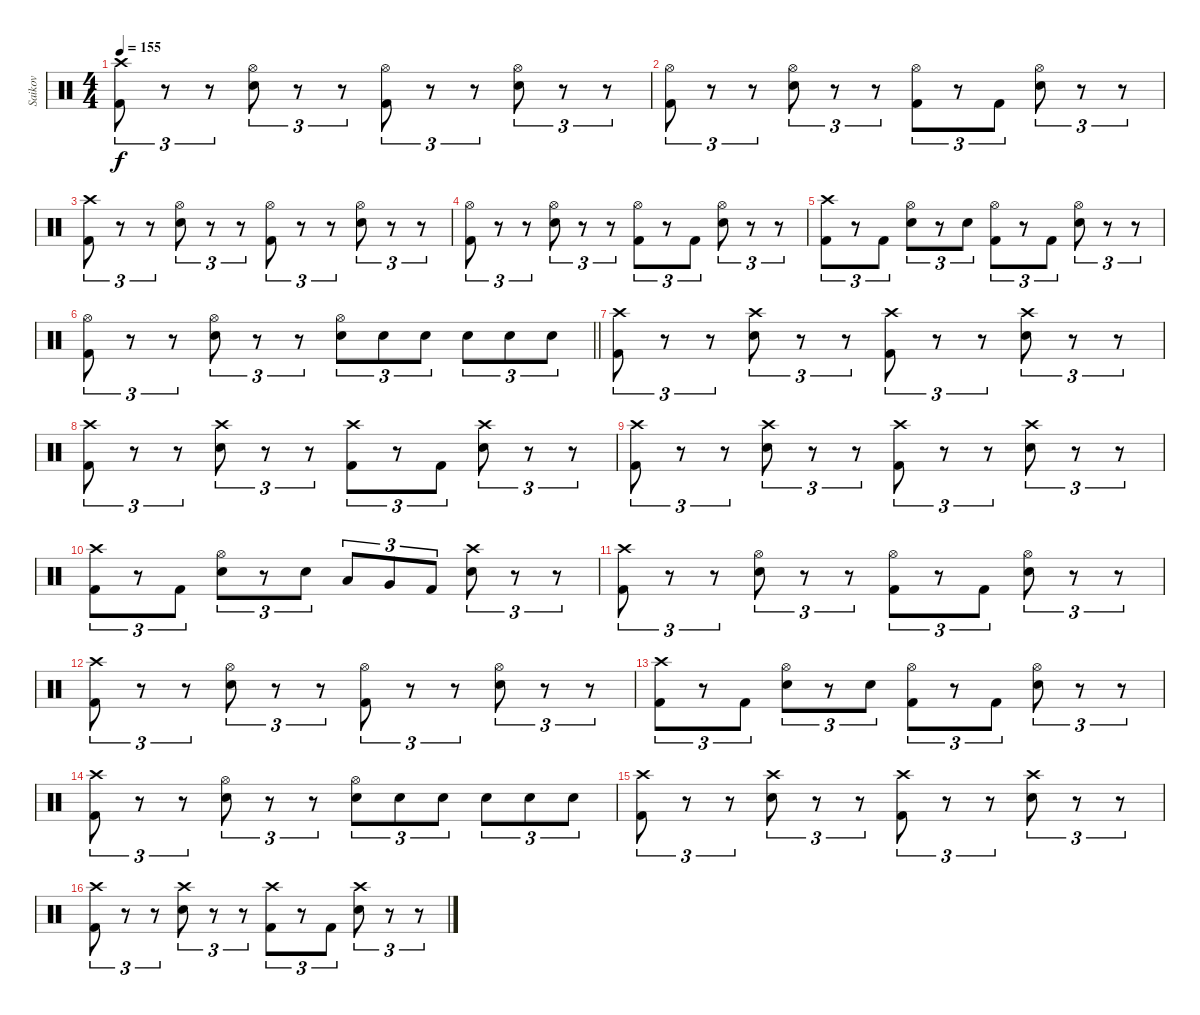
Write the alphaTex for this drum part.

\track ("Saikov" "Saikov") {instrument percussion}
\staff {score}
\articulation defaults
\ts (4 4)
\tempo 155
\clef neutral
\ks c
("Crash high (hit)" "Kick (hit) 2").8{tu (3 2) dy f} r.8{tu (3 2)} r.8{tu (3 2)} ("Hi-Hat (open)" "Snare (hit) 2").8{tu (3 2)} r.8{tu (3 2)} r.8{tu (3 2)} ("Hi-Hat (open)" "Kick (hit) 2").8{tu (3 2)} r.8{tu (3 2)} r.8{tu (3 2)} ("Hi-Hat (open)" "Snare (hit) 2").8{tu (3 2)} r.8{tu (3 2)} r.8{tu (3 2)} |
("Hi-Hat (open)" "Kick (hit) 2").8{tu (3 2)} r.8{tu (3 2)} r.8{tu (3 2)} ("Hi-Hat (open)" "Snare (hit) 2").8{tu (3 2)} r.8{tu (3 2)} r.8{tu (3 2)} ("Hi-Hat (open)" "Kick (hit) 2").8{tu (3 2)} r.8{tu (3 2)} "Kick (hit) 2".8{tu (3 2)} ("Hi-Hat (open)" "Snare (hit) 2").8{tu (3 2)} r.8{tu (3 2)} r.8{tu (3 2)} |
("Crash high (hit)" "Kick (hit) 2").8{tu (3 2)} r.8{tu (3 2)} r.8{tu (3 2)} ("Hi-Hat (open)" "Snare (hit) 2").8{tu (3 2)} r.8{tu (3 2)} r.8{tu (3 2)} ("Hi-Hat (open)" "Kick (hit) 2").8{tu (3 2)} r.8{tu (3 2)} r.8{tu (3 2)} ("Hi-Hat (open)" "Snare (hit) 2").8{tu (3 2)} r.8{tu (3 2)} r.8{tu (3 2)} |
("Hi-Hat (open)" "Kick (hit) 2").8{tu (3 2)} r.8{tu (3 2)} r.8{tu (3 2)} ("Hi-Hat (open)" "Snare (hit) 2").8{tu (3 2)} r.8{tu (3 2)} r.8{tu (3 2)} ("Hi-Hat (open)" "Kick (hit) 2").8{tu (3 2)} r.8{tu (3 2)} "Kick (hit) 2".8{tu (3 2)} ("Hi-Hat (open)" "Snare (hit) 2").8{tu (3 2)} r.8{tu (3 2)} r.8{tu (3 2)} |
("Crash high (hit)" "Kick (hit) 2").8{tu (3 2)} r.8{tu (3 2)} "Kick (hit) 2".8{tu (3 2)} ("Hi-Hat (open)" "Snare (hit) 2").8{tu (3 2)} r.8{tu (3 2)} "Snare (hit) 2".8{tu (3 2)} ("Hi-Hat (open)" "Kick (hit) 2").8{tu (3 2)} r.8{tu (3 2)} "Kick (hit) 2".8{tu (3 2)} ("Hi-Hat (open)" "Snare (hit) 2").8{tu (3 2)} r.8{tu (3 2)} r.8{tu (3 2)} |
\barLineRight lightlight
("Hi-Hat (open)" "Kick (hit) 2").8{tu (3 2)} r.8{tu (3 2)} r.8{tu (3 2)} ("Hi-Hat (open)" "Snare (hit) 2").8{tu (3 2)} r.8{tu (3 2)} r.8{tu (3 2)} ("Hi-Hat (open)" "Snare (hit) 2").8{tu (3 2)} "Snare (hit) 2".8{tu (3 2)} "Snare (hit) 2".8{tu (3 2)} "Snare (hit) 2".8{tu (3 2)} "Snare (hit) 2".8{tu (3 2)} "Snare (hit) 2".8{tu (3 2)} |
("Crash high (hit)" "Kick (hit) 2").8{tu (3 2)} r.8{tu (3 2)} r.8{tu (3 2)} ("Crash high (hit)" "Snare (hit) 2").8{tu (3 2)} r.8{tu (3 2)} r.8{tu (3 2)} ("Crash high (hit)" "Kick (hit) 2").8{tu (3 2)} r.8{tu (3 2)} r.8{tu (3 2)} ("Crash high (hit)" "Snare (hit) 2").8{tu (3 2)} r.8{tu (3 2)} r.8{tu (3 2)} |
("Crash high (hit)" "Kick (hit) 2").8{tu (3 2)} r.8{tu (3 2)} r.8{tu (3 2)} ("Crash high (hit)" "Snare (hit) 2").8{tu (3 2)} r.8{tu (3 2)} r.8{tu (3 2)} ("Crash high (hit)" "Kick (hit) 2").8{tu (3 2)} r.8{tu (3 2)} "Kick (hit) 2".8{tu (3 2)} ("Crash high (hit)" "Snare (hit) 2").8{tu (3 2)} r.8{tu (3 2)} r.8{tu (3 2)} |
("Crash high (hit)" "Kick (hit) 2").8{tu (3 2)} r.8{tu (3 2)} r.8{tu (3 2)} ("Crash high (hit)" "Snare (hit) 2").8{tu (3 2)} r.8{tu (3 2)} r.8{tu (3 2)} ("Crash high (hit)" "Kick (hit) 2").8{tu (3 2)} r.8{tu (3 2)} r.8{tu (3 2)} ("Crash high (hit)" "Snare (hit) 2").8{tu (3 2)} r.8{tu (3 2)} r.8{tu (3 2)} |
("Crash high (hit)" "Kick (hit) 2").8{tu (3 2)} r.8{tu (3 2)} "Kick (hit) 2".8{tu (3 2)} ("Hi-Hat (open)" "Snare (hit) 2").8{tu (3 2)} r.8{tu (3 2)} "Snare (hit) 2".8{tu (3 2)} "Low Tom (hit)".8{tu (3 2)} "Very Low Tom (hit)".8{tu (3 2)} "Kick (hit) 2".8{tu (3 2)} ("Crash high (hit)" "Snare (hit) 2").8{tu (3 2)} r.8{tu (3 2)} r.8{tu (3 2)} |
("Crash high (hit)" "Kick (hit) 2").8{tu (3 2)} r.8{tu (3 2)} r.8{tu (3 2)} ("Hi-Hat (open)" "Snare (hit) 2").8{tu (3 2)} r.8{tu (3 2)} r.8{tu (3 2)} ("Hi-Hat (open)" "Kick (hit) 2").8{tu (3 2)} r.8{tu (3 2)} "Kick (hit) 2".8{tu (3 2)} ("Hi-Hat (open)" "Snare (hit) 2").8{tu (3 2)} r.8{tu (3 2)} r.8{tu (3 2)} |
("Crash high (hit)" "Kick (hit) 2").8{tu (3 2)} r.8{tu (3 2)} r.8{tu (3 2)} ("Hi-Hat (open)" "Snare (hit) 2").8{tu (3 2)} r.8{tu (3 2)} r.8{tu (3 2)} ("Hi-Hat (open)" "Kick (hit) 2").8{tu (3 2)} r.8{tu (3 2)} r.8{tu (3 2)} ("Hi-Hat (open)" "Snare (hit) 2").8{tu (3 2)} r.8{tu (3 2)} r.8{tu (3 2)} |
("Crash high (hit)" "Kick (hit) 2").8{tu (3 2)} r.8{tu (3 2)} "Kick (hit) 2".8{tu (3 2)} ("Hi-Hat (open)" "Snare (hit) 2").8{tu (3 2)} r.8{tu (3 2)} "Snare (hit) 2".8{tu (3 2)} ("Hi-Hat (open)" "Kick (hit) 2").8{tu (3 2)} r.8{tu (3 2)} "Kick (hit) 2".8{tu (3 2)} ("Hi-Hat (open)" "Snare (hit) 2").8{tu (3 2)} r.8{tu (3 2)} r.8{tu (3 2)} |
("Crash high (hit)" "Kick (hit) 2").8{tu (3 2)} r.8{tu (3 2)} r.8{tu (3 2)} ("Hi-Hat (open)" "Snare (hit) 2").8{tu (3 2)} r.8{tu (3 2)} r.8{tu (3 2)} ("Hi-Hat (open)" "Snare (hit) 2").8{tu (3 2)} "Snare (hit) 2".8{tu (3 2)} "Snare (hit) 2".8{tu (3 2)} "Snare (hit) 2".8{tu (3 2)} "Snare (hit) 2".8{tu (3 2)} "Snare (hit) 2".8{tu (3 2)} |
("Crash high (hit)" "Kick (hit) 2").8{tu (3 2)} r.8{tu (3 2)} r.8{tu (3 2)} ("Crash high (hit)" "Snare (hit) 2").8{tu (3 2)} r.8{tu (3 2)} r.8{tu (3 2)} ("Crash high (hit)" "Kick (hit) 2").8{tu (3 2)} r.8{tu (3 2)} r.8{tu (3 2)} ("Crash high (hit)" "Snare (hit) 2").8{tu (3 2)} r.8{tu (3 2)} r.8{tu (3 2)} |
("Crash high (hit)" "Kick (hit) 2").8{tu (3 2)} r.8{tu (3 2)} r.8{tu (3 2)} ("Crash high (hit)" "Snare (hit) 2").8{tu (3 2)} r.8{tu (3 2)} r.8{tu (3 2)} ("Crash high (hit)" "Kick (hit) 2").8{tu (3 2)} r.8{tu (3 2)} "Kick (hit) 2".8{tu (3 2)} ("Crash high (hit)" "Snare (hit) 2").8{tu (3 2)} r.8{tu (3 2)} r.8{tu (3 2)}
